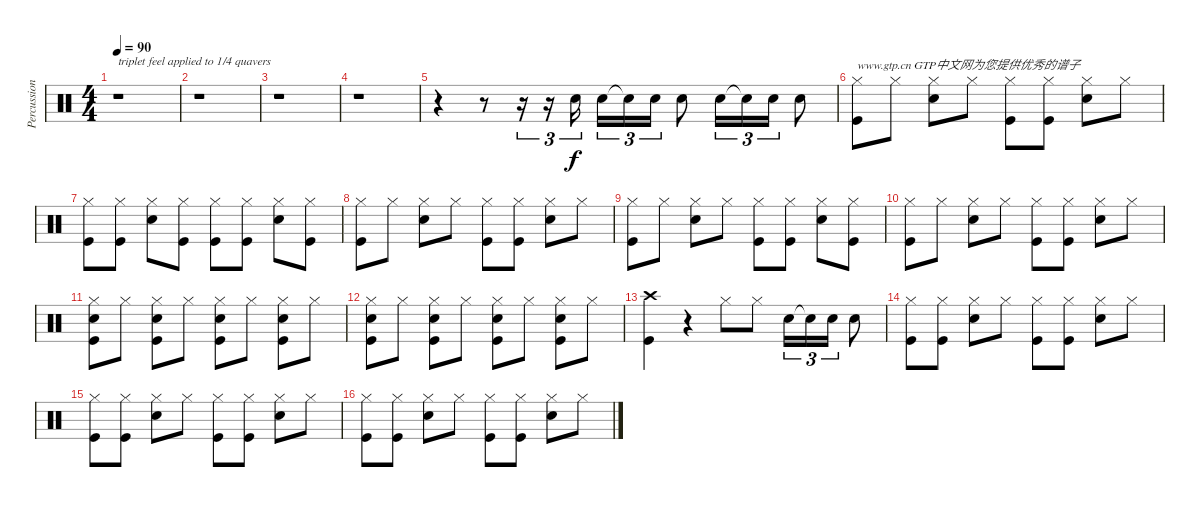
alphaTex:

\track ("Percussion" "Percussion") {instrument percussion}
\staff {score}
\articulation defaults
\ts (4 4)
\tempo 90
\clef neutral
\ks c
r.1{txt "triplet feel applied to 1/4 quavers" dy f} |
r.1 |
r.1 |
r.1 |
r.4 r.8 r.16{tu (3 2)} r.16{tu (3 2)} "Snare (hit) 2".16{tu (3 2)} "Snare (hit) 2".16{tu (3 2)} "Snare (hit)"{t}.16{tu (3 2)} "Snare (hit) 2".16{tu (3 2)} "Snare (hit) 2".8 "Snare (hit) 2".16{tu (3 2)} "Snare (hit)"{t}.16{tu (3 2)} "Snare (hit) 2".16{tu (3 2)} "Snare (hit) 2".8 |
("Hi-Hat (closed)" "Kick (hit)").8{txt "www.gtp.cn GTP中文网为您提供优秀的谱子"} "Hi-Hat (closed)".8 ("Hi-Hat (closed)" "Snare (hit) 2").8 "Hi-Hat (closed)".8 ("Hi-Hat (closed)" "Kick (hit)").8 ("Hi-Hat (closed)" "Kick (hit)").8 ("Hi-Hat (closed)" "Snare (hit) 2").8 "Hi-Hat (closed)".8 |
("Hi-Hat (closed)" "Kick (hit)").8 ("Hi-Hat (closed)" "Kick (hit)").8 ("Hi-Hat (closed)" "Snare (hit) 2").8 ("Hi-Hat (closed)" "Kick (hit)").8 ("Hi-Hat (closed)" "Kick (hit)").8 ("Hi-Hat (closed)" "Kick (hit)").8 ("Hi-Hat (closed)" "Snare (hit) 2").8 ("Hi-Hat (closed)" "Kick (hit)").8 |
("Hi-Hat (closed)" "Kick (hit)").8 "Hi-Hat (closed)".8 ("Hi-Hat (closed)" "Snare (hit) 2").8 "Hi-Hat (closed)".8 ("Hi-Hat (closed)" "Kick (hit)").8 ("Hi-Hat (closed)" "Kick (hit)").8 ("Hi-Hat (closed)" "Snare (hit) 2").8 "Hi-Hat (closed)".8 |
("Hi-Hat (closed)" "Kick (hit)").8 "Hi-Hat (closed)".8 ("Hi-Hat (closed)" "Snare (hit) 2").8 "Hi-Hat (closed)".8 ("Hi-Hat (closed)" "Kick (hit)").8 ("Hi-Hat (closed)" "Kick (hit)").8 ("Hi-Hat (closed)" "Snare (hit) 2").8 ("Hi-Hat (closed)" "Kick (hit)").8 |
("Hi-Hat (closed)" "Kick (hit)").8 "Hi-Hat (closed)".8 ("Hi-Hat (closed)" "Snare (hit) 2").8 "Hi-Hat (closed)".8 ("Hi-Hat (closed)" "Kick (hit)").8 ("Hi-Hat (closed)" "Kick (hit)").8 ("Hi-Hat (closed)" "Snare (hit) 2").8 "Hi-Hat (closed)".8 |
("Hi-Hat (closed)" "Snare (hit) 2" "Kick (hit)").8 "Hi-Hat (closed)".8 ("Hi-Hat (closed)" "Snare (hit) 2" "Kick (hit)").8 "Hi-Hat (closed)".8 ("Hi-Hat (closed)" "Snare (hit) 2" "Kick (hit)").8 "Hi-Hat (closed)".8 ("Hi-Hat (closed)" "Snare (hit) 2" "Kick (hit)").8 "Hi-Hat (closed)".8 |
("Hi-Hat (closed)" "Snare (hit) 2" "Kick (hit)").8 "Hi-Hat (closed)".8 ("Hi-Hat (closed)" "Snare (hit) 2" "Kick (hit)").8 "Hi-Hat (closed)".8 ("Hi-Hat (closed)" "Snare (hit) 2" "Kick (hit)").8 "Hi-Hat (closed)".8 ("Hi-Hat (closed)" "Snare (hit) 2" "Kick (hit)").8 "Hi-Hat (closed)".8 |
("Crash high (hit)" "Kick (hit)").4 r.4 "Hi-Hat (closed)".8 "Hi-Hat (closed)".8 "Snare (hit) 2".16{tu (3 2)} "Snare (hit)"{t}.16{tu (3 2)} "Snare (hit) 2".16{tu (3 2)} "Snare (hit) 2".8 |
("Hi-Hat (closed)" "Kick (hit)").8 ("Hi-Hat (closed)" "Kick (hit)").8 ("Hi-Hat (closed)" "Snare (hit) 2").8 "Hi-Hat (closed)".8 ("Hi-Hat (closed)" "Kick (hit)").8 ("Hi-Hat (closed)" "Kick (hit)").8 ("Hi-Hat (closed)" "Snare (hit) 2").8 "Hi-Hat (closed)".8 |
("Hi-Hat (closed)" "Kick (hit)").8 ("Hi-Hat (closed)" "Kick (hit)").8 ("Hi-Hat (closed)" "Snare (hit) 2").8 "Hi-Hat (closed)".8 ("Hi-Hat (closed)" "Kick (hit)").8 ("Hi-Hat (closed)" "Kick (hit)").8 ("Hi-Hat (closed)" "Snare (hit) 2").8 "Hi-Hat (closed)".8 |
("Hi-Hat (closed)" "Kick (hit)").8 ("Hi-Hat (closed)" "Kick (hit)").8 ("Hi-Hat (closed)" "Snare (hit) 2").8 "Hi-Hat (closed)".8 ("Hi-Hat (closed)" "Kick (hit)").8 ("Hi-Hat (closed)" "Kick (hit)").8 ("Hi-Hat (closed)" "Snare (hit) 2").8 "Hi-Hat (closed)".8
